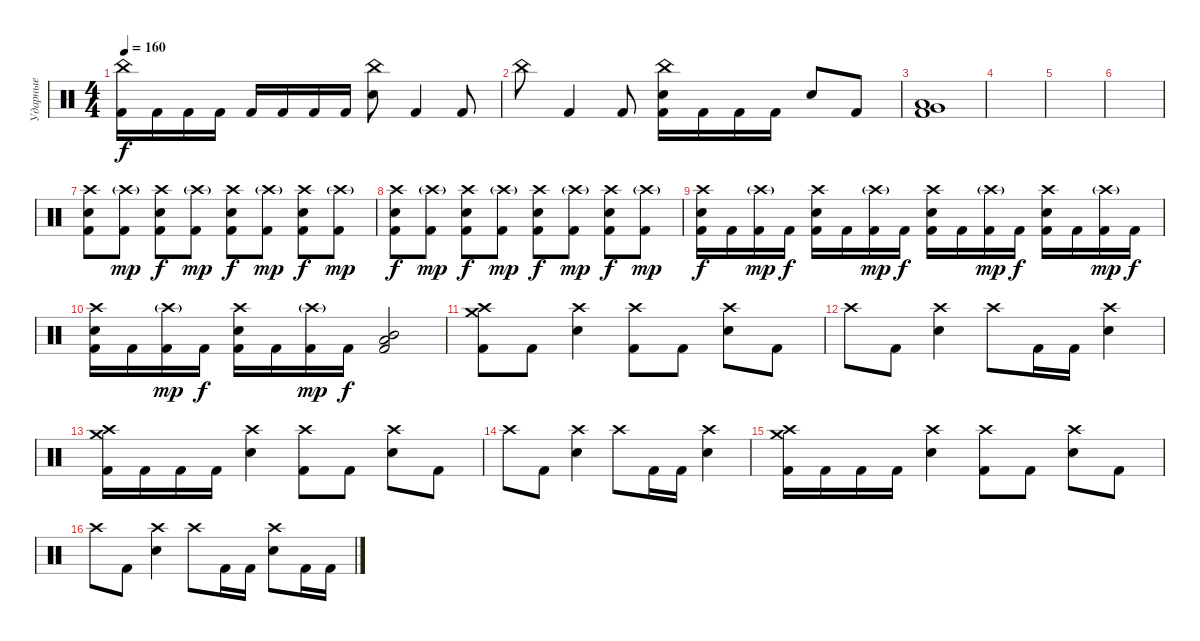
\track ("Ударные" "Ударные") {instrument percussion}
\staff {score}
\articulation defaults
\ts (4 4)
\tempo 160
\clef neutral
\ks c
("China (hit)" "Kick (hit) 2").16{dy f} "Kick (hit) 2".16 "Kick (hit) 2".16 "Kick (hit) 2".16 "Kick (hit) 2".16 "Kick (hit) 2".16 "Kick (hit) 2".16 "Kick (hit) 2".16 ("China (hit)" "Snare (hit) 2").8 "Kick (hit) 2".4 "Kick (hit) 2".8 |
"China (hit)".8 "Kick (hit) 2".4 "Kick (hit) 2".8 ("China (hit)" "Snare (hit) 2" "Kick (hit) 2").16 "Kick (hit) 2".16 "Kick (hit) 2".16 "Kick (hit) 2".16 "Snare (hit) 2".8 "Kick (hit) 2".8 |
("Very Low Tom (hit)" "Low Floor Tom (hit)" "Kick (hit) 2").1 |
|
|
|
("Crash high (hit)" "Snare (hit) 2" "Kick (hit) 2").8 ("Crash high (hit)"{g} "Kick (hit) 2").8{dy mp} ("Crash high (hit)" "Snare (hit) 2" "Kick (hit) 2").8{dy f} ("Crash high (hit)"{g} "Kick (hit) 2").8{dy mp} ("Crash high (hit)" "Snare (hit) 2" "Kick (hit) 2").8{dy f} ("Crash high (hit)"{g} "Kick (hit) 2").8{dy mp} ("Crash high (hit)" "Snare (hit) 2" "Kick (hit) 2").8{dy f} ("Crash high (hit)"{g} "Kick (hit) 2").8{dy mp} |
("Crash high (hit)" "Snare (hit) 2" "Kick (hit) 2").8{dy f} ("Crash high (hit)"{g} "Kick (hit) 2").8{dy mp} ("Crash high (hit)" "Snare (hit) 2" "Kick (hit) 2").8{dy f} ("Crash high (hit)"{g} "Kick (hit) 2").8{dy mp} ("Crash high (hit)" "Snare (hit) 2" "Kick (hit) 2").8{dy f} ("Crash high (hit)"{g} "Kick (hit) 2").8{dy mp} ("Crash high (hit)" "Snare (hit) 2" "Kick (hit) 2").8{dy f} ("Crash high (hit)"{g} "Kick (hit) 2").8{dy mp} |
("Crash high (hit)" "Snare (hit) 2" "Kick (hit) 2").16{dy f} "Kick (hit) 2".16 ("Crash high (hit)"{g} "Kick (hit) 2").16{dy mp} "Kick (hit) 2".16{dy f} ("Crash high (hit)" "Snare (hit) 2" "Kick (hit) 2").16 "Kick (hit) 2".16 ("Crash high (hit)"{g} "Kick (hit) 2").16{dy mp} "Kick (hit) 2".16{dy f} ("Crash high (hit)" "Snare (hit) 2" "Kick (hit) 2").16 "Kick (hit) 2".16 ("Crash high (hit)"{g} "Kick (hit) 2").16{dy mp} "Kick (hit) 2".16{dy f} ("Crash high (hit)" "Snare (hit) 2" "Kick (hit) 2").16 "Kick (hit) 2".16 ("Crash high (hit)"{g} "Kick (hit) 2").16{dy mp} "Kick (hit) 2".16{dy f} |
("Crash high (hit)" "Snare (hit) 2" "Kick (hit) 2").16 "Kick (hit) 2".16 ("Crash high (hit)"{g} "Kick (hit) 2").16{dy mp} "Kick (hit) 2".16{dy f} ("Crash high (hit)" "Snare (hit) 2" "Kick (hit) 2").16 "Kick (hit) 2".16 ("Crash high (hit)"{g} "Kick (hit) 2").16{dy mp} "Kick (hit) 2".16{dy f} ("Mid Tom (hit)" "Low Tom (hit)" "Kick (hit) 2").2 |
("Crash high (hit)" "Crash medium (hit)" "Kick (hit) 2").8 "Kick (hit) 2".8 ("Crash high (hit)" "Snare (hit) 2").4 ("Crash high (hit)" "Kick (hit) 2").8 "Kick (hit) 2".8 ("Crash high (hit)" "Snare (hit) 2").8 "Kick (hit) 2".8 |
"Crash high (hit)".8 "Kick (hit) 2".8 ("Crash high (hit)" "Snare (hit) 2").4 "Crash high (hit)".8 "Kick (hit) 2".16 "Kick (hit) 2".16 ("Crash high (hit)" "Snare (hit) 2").4 |
("Crash high (hit)" "Crash medium (hit)" "Kick (hit) 2").16 "Kick (hit) 2".16 "Kick (hit) 2".16 "Kick (hit) 2".16 ("Crash high (hit)" "Snare (hit) 2").4 ("Crash high (hit)" "Kick (hit) 2").8 "Kick (hit) 2".8 ("Crash high (hit)" "Snare (hit) 2").8 "Kick (hit) 2".8 |
"Crash high (hit)".8 "Kick (hit) 2".8 ("Crash high (hit)" "Snare (hit) 2").4 "Crash high (hit)".8 "Kick (hit) 2".16 "Kick (hit) 2".16 ("Crash high (hit)" "Snare (hit) 2").4 |
("Crash high (hit)" "Crash medium (hit)" "Kick (hit) 2").16 "Kick (hit) 2".16 "Kick (hit) 2".16 "Kick (hit) 2".16 ("Crash high (hit)" "Snare (hit) 2").4 ("Crash high (hit)" "Kick (hit) 2").8 "Kick (hit) 2".8 ("Crash high (hit)" "Snare (hit) 2").8 "Kick (hit) 2".8 |
"Crash high (hit)".8 "Kick (hit) 2".8 ("Crash high (hit)" "Snare (hit) 2").4 "Crash high (hit)".8 "Kick (hit) 2".16 "Kick (hit) 2".16 ("Crash high (hit)" "Snare (hit) 2").8 "Kick (hit) 2".16 "Kick (hit) 2".16
